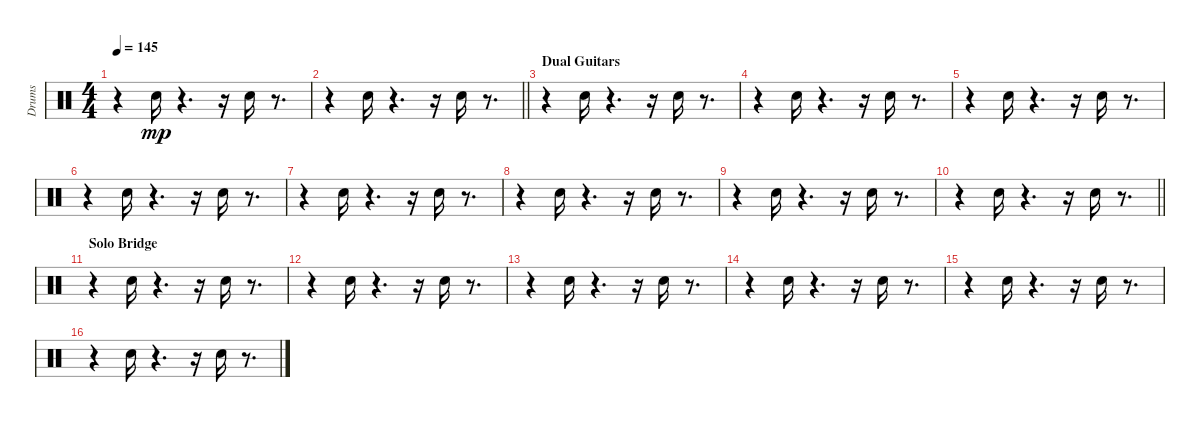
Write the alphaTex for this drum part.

\track ("Drums" "Drums") {instrument percussion}
\staff {score}
\articulation defaults
\ts (4 4)
\tempo 145
\clef neutral
\ks c
r.4{dy mp} "Snare (hit) 2".16 r.4{d} r.16 "Snare (hit) 2".16 r.8{d} |
\barLineRight lightlight
r.4 "Snare (hit) 2".16 r.4{d} r.16 "Snare (hit) 2".16 r.8{d} |
\section ("" "Dual Guitars")
r.4 "Snare (hit) 2".16 r.4{d} r.16 "Snare (hit) 2".16 r.8{d} |
r.4 "Snare (hit) 2".16 r.4{d} r.16 "Snare (hit) 2".16 r.8{d} |
r.4 "Snare (hit) 2".16 r.4{d} r.16 "Snare (hit) 2".16 r.8{d} |
r.4 "Snare (hit) 2".16 r.4{d} r.16 "Snare (hit) 2".16 r.8{d} |
r.4 "Snare (hit) 2".16 r.4{d} r.16 "Snare (hit) 2".16 r.8{d} |
r.4 "Snare (hit) 2".16 r.4{d} r.16 "Snare (hit) 2".16 r.8{d} |
r.4 "Snare (hit) 2".16 r.4{d} r.16 "Snare (hit) 2".16 r.8{d} |
\barLineRight lightlight
r.4 "Snare (hit) 2".16 r.4{d} r.16 "Snare (hit) 2".16 r.8{d} |
\section ("" "Solo Bridge")
r.4 "Snare (hit) 2".16 r.4{d} r.16 "Snare (hit) 2".16 r.8{d} |
r.4 "Snare (hit) 2".16 r.4{d} r.16 "Snare (hit) 2".16 r.8{d} |
r.4 "Snare (hit) 2".16 r.4{d} r.16 "Snare (hit) 2".16 r.8{d} |
r.4 "Snare (hit) 2".16 r.4{d} r.16 "Snare (hit) 2".16 r.8{d} |
r.4 "Snare (hit) 2".16 r.4{d} r.16 "Snare (hit) 2".16 r.8{d} |
r.4 "Snare (hit) 2".16 r.4{d} r.16 "Snare (hit) 2".16 r.8{d}
